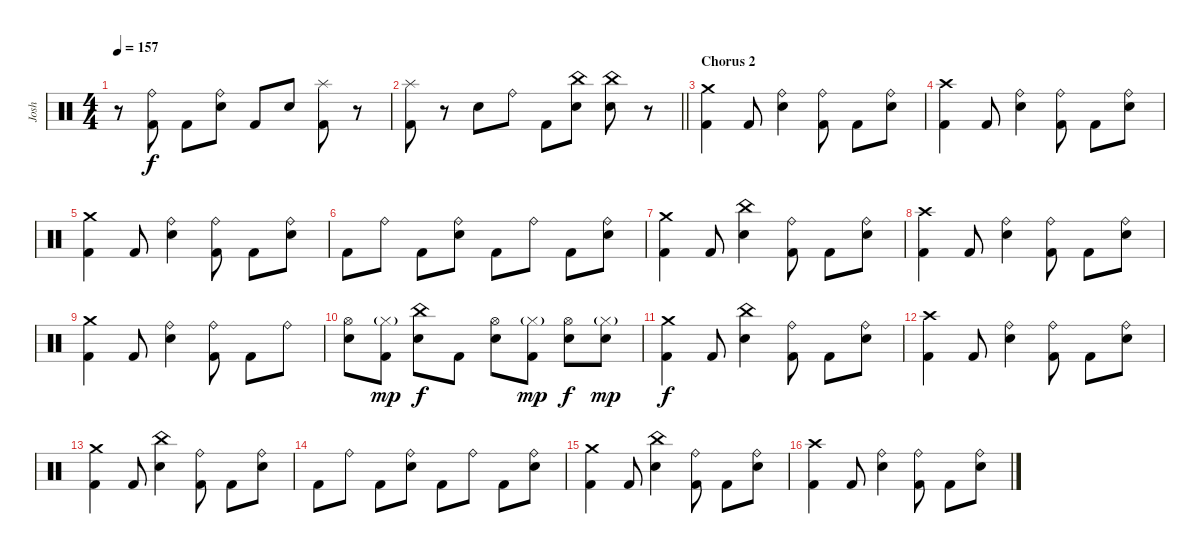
\track ("Josh" "Josh") {instrument percussion}
\staff {score}
\articulation defaults
\ts (4 4)
\tempo 157
\clef neutral
\ks c
r.8{dy f} ("Ride (bell)" "Kick (hit) 2").8 "Kick (hit) 2".8 ("Ride (bell)" "Electric Snare (hit)").8 "Kick (hit) 2".8 "Electric Snare (hit)".8 ("Splash (hit)" "Kick (hit) 2").8 r.8 |
\barLineRight lightlight
("Splash (hit)" "Kick (hit) 2").8 r.8 "Electric Snare (hit)".8 "Ride (bell)".8 "Kick (hit) 2".8 ("China (hit)" "Electric Snare (hit)").8 ("China (hit)" "Electric Snare (hit)").8 r.8 |
\section ("" "Chorus 2")
("Crash medium (hit)" "Kick (hit) 2").4 "Kick (hit) 2".8 ("Ride (bell)" "Electric Snare (hit)").4 ("Ride (bell)" "Kick (hit) 2").8 "Kick (hit) 2".8 ("Ride (bell)" "Electric Snare (hit)").8 |
("Crash high (hit)" "Kick (hit) 2").4 "Kick (hit) 2".8 ("Ride (bell)" "Electric Snare (hit)").4 ("Ride (bell)" "Kick (hit) 2").8 "Kick (hit) 2".8 ("Ride (bell)" "Electric Snare (hit)").8 |
("Crash medium (hit)" "Kick (hit) 2").4 "Kick (hit) 2".8 ("Ride (bell)" "Electric Snare (hit)").4 ("Ride (bell)" "Kick (hit) 2").8 "Kick (hit) 2".8 ("Ride (bell)" "Electric Snare (hit)").8 |
"Kick (hit) 2".8 "Ride (bell)".8 "Kick (hit) 2".8 ("Ride (bell)" "Electric Snare (hit)").8 "Kick (hit) 2".8 "Ride (bell)".8 "Kick (hit) 2".8 ("Ride (bell)" "Electric Snare (hit)").8 |
("Crash medium (hit)" "Kick (hit) 2").4 "Kick (hit) 2".8 ("China (hit)" "Electric Snare (hit)").4 ("Ride (bell)" "Kick (hit) 2").8 "Kick (hit) 2".8 ("Ride (bell)" "Electric Snare (hit)").8 |
("Crash high (hit)" "Kick (hit) 2").4 "Kick (hit) 2".8 ("Ride (bell)" "Electric Snare (hit)").4 ("Ride (bell)" "Kick (hit) 2").8 "Kick (hit) 2".8 ("Ride (bell)" "Electric Snare (hit)").8 |
("Crash medium (hit)" "Kick (hit) 2").4 "Kick (hit) 2".8 ("Ride (bell)" "Electric Snare (hit)").4 ("Ride (bell)" "Kick (hit) 2").8 "Kick (hit) 2".8 "Ride (bell)".8 |
("Hi-Hat (open)" "Electric Snare (hit)").8 ("Hi-Hat (closed)"{g} "Kick (hit) 2").8{dy mp} ("China (hit)" "Electric Snare (hit)").8{dy f} "Kick (hit) 2".8 ("Hi-Hat (open)" "Electric Snare (hit)").8 ("Hi-Hat (closed)"{g} "Kick (hit) 2").8{dy mp} ("Hi-Hat (open)" "Electric Snare (hit)").8{dy f} ("Hi-Hat (closed)"{g} "Electric Snare (hit)").8{dy mp} |
("Crash medium (hit)" "Kick (hit) 2").4{dy f} "Kick (hit) 2".8 ("China (hit)" "Electric Snare (hit)").4 ("Ride (bell)" "Kick (hit) 2").8 "Kick (hit) 2".8 ("Ride (bell)" "Electric Snare (hit)").8 |
("Crash high (hit)" "Kick (hit) 2").4 "Kick (hit) 2".8 ("Ride (bell)" "Electric Snare (hit)").4 ("Ride (bell)" "Kick (hit) 2").8 "Kick (hit) 2".8 ("Ride (bell)" "Electric Snare (hit)").8 |
("Crash medium (hit)" "Kick (hit) 2").4 "Kick (hit) 2".8 ("China (hit)" "Electric Snare (hit)").4 ("Ride (bell)" "Kick (hit) 2").8 "Kick (hit) 2".8 ("Ride (bell)" "Electric Snare (hit)").8 |
"Kick (hit) 2".8 "Ride (bell)".8 "Kick (hit) 2".8 ("Ride (bell)" "Electric Snare (hit)").8 "Kick (hit) 2".8 "Ride (bell)".8 "Kick (hit) 2".8 ("Ride (bell)" "Electric Snare (hit)").8 |
("Crash medium (hit)" "Kick (hit) 2").4 "Kick (hit) 2".8 ("China (hit)" "Electric Snare (hit)").4 ("Ride (bell)" "Kick (hit) 2").8 "Kick (hit) 2".8 ("Ride (bell)" "Electric Snare (hit)").8 |
("Crash high (hit)" "Kick (hit) 2").4 "Kick (hit) 2".8 ("Ride (bell)" "Electric Snare (hit)").4 ("Ride (bell)" "Kick (hit) 2").8 "Kick (hit) 2".8 ("Ride (bell)" "Electric Snare (hit)").8
